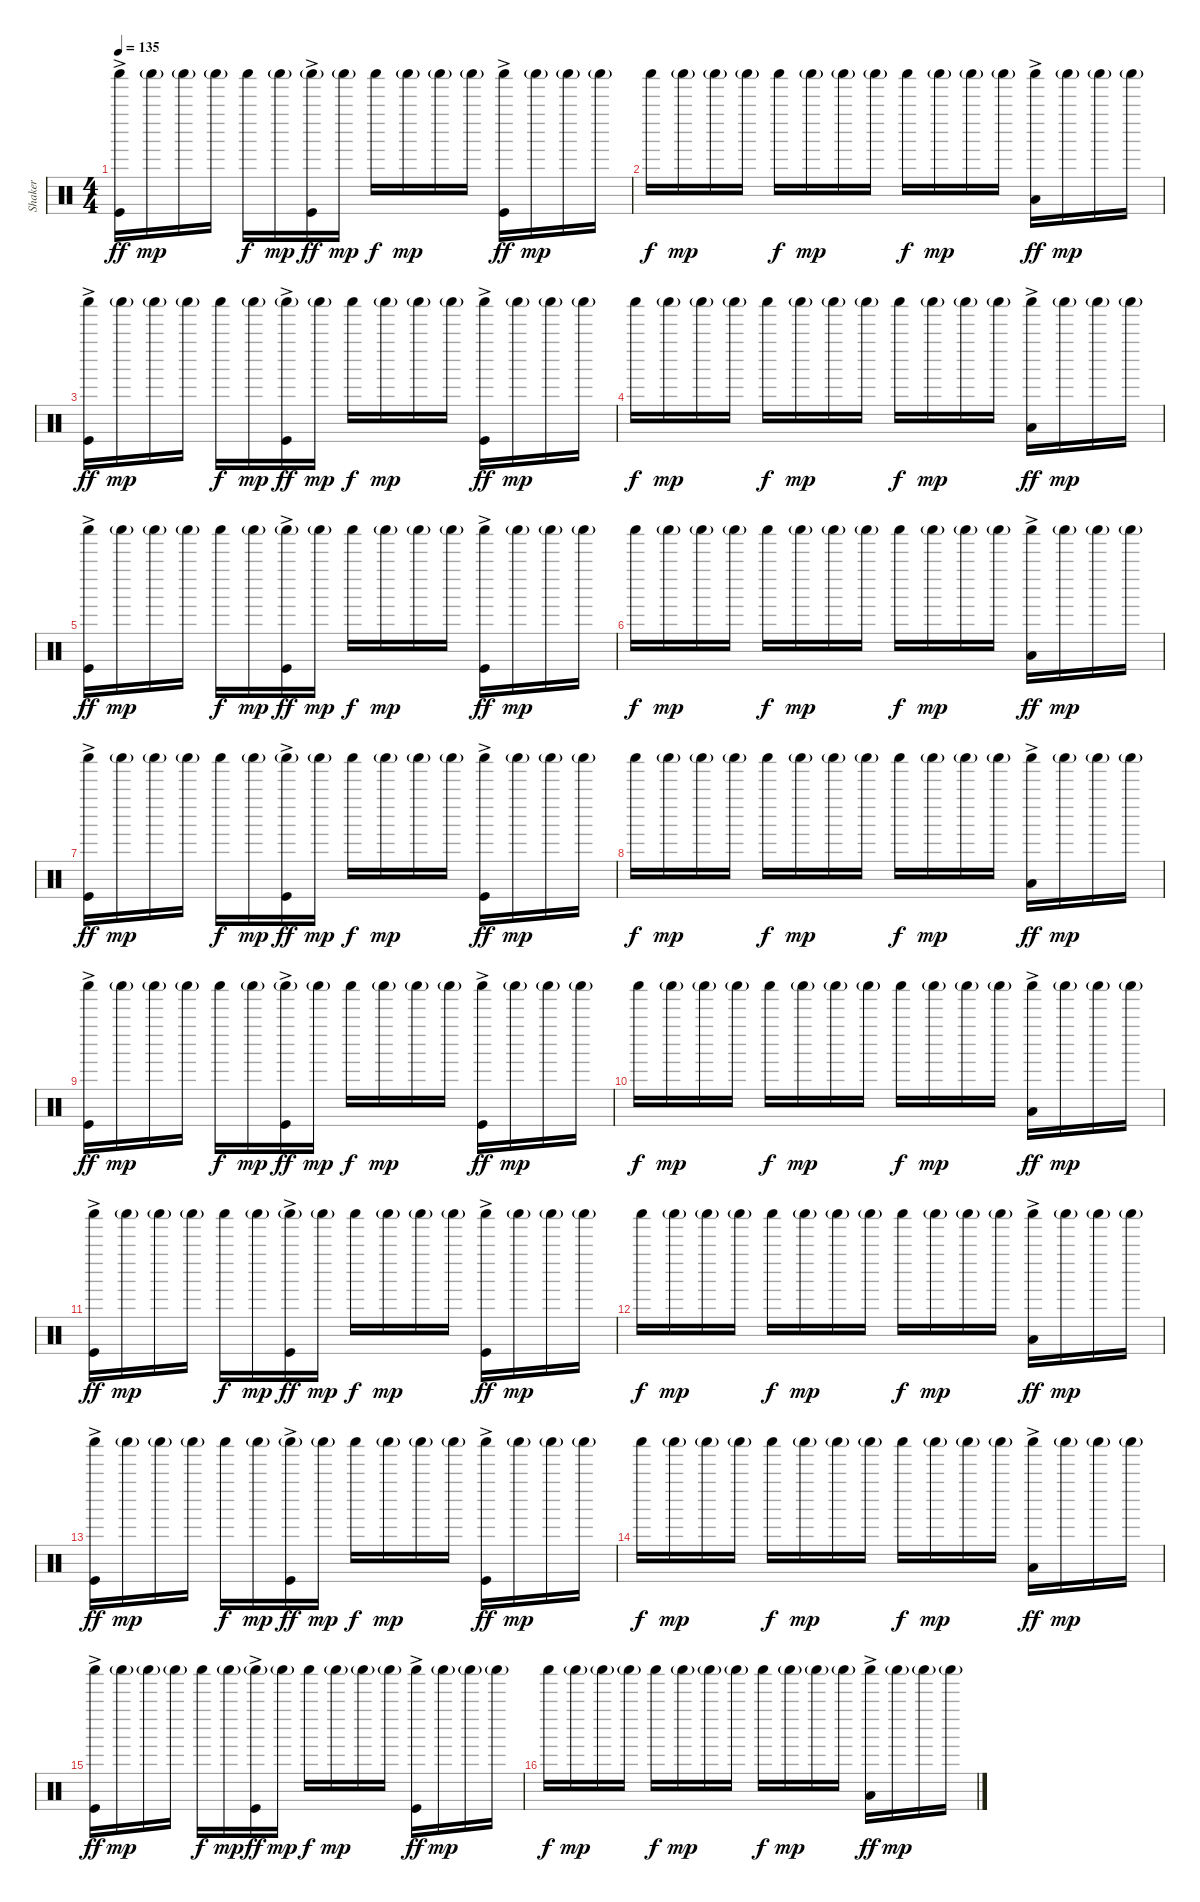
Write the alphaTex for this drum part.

\track ("Shaker" "Shaker") {instrument percussion}
\staff {score}
\articulation defaults
\ts (4 4)
\tempo 135
\clef neutral
\ks c
("Shaker (hit)" "Kick (hit)"{ac}).16{dy ff} "Shaker (hit)"{g}.16{dy mp} "Shaker (hit)"{g}.16 "Shaker (hit)"{g}.16 "Shaker (hit)".16{dy f} "Shaker (hit)"{g}.16{dy mp} ("Shaker (hit)"{g} "Kick (hit)"{ac}).16{dy ff} "Shaker (hit)"{g}.16{dy mp} "Shaker (hit)".16{dy f} "Shaker (hit)"{g}.16{dy mp} "Shaker (hit)"{g}.16 "Shaker (hit)"{g}.16 ("Shaker (hit)" "Kick (hit)"{ac}).16{dy ff} "Shaker (hit)"{g}.16{dy mp} "Shaker (hit)"{g}.16 "Shaker (hit)"{g}.16 |
"Shaker (hit)".16{dy f} "Shaker (hit)"{g}.16{dy mp} "Shaker (hit)"{g}.16 "Shaker (hit)"{g}.16 "Shaker (hit)".16{dy f} "Shaker (hit)"{g}.16{dy mp} "Shaker (hit)"{g}.16 "Shaker (hit)"{g}.16 "Shaker (hit)".16{dy f} "Shaker (hit)"{g}.16{dy mp} "Shaker (hit)"{g}.16 "Shaker (hit)"{g}.16 ("Shaker (hit)" "Low Floor Tom (hit)"{ac}).16{dy ff} "Shaker (hit)"{g}.16{dy mp} "Shaker (hit)"{g}.16 "Shaker (hit)"{g}.16 |
("Shaker (hit)" "Kick (hit)"{ac}).16{dy ff} "Shaker (hit)"{g}.16{dy mp} "Shaker (hit)"{g}.16 "Shaker (hit)"{g}.16 "Shaker (hit)".16{dy f} "Shaker (hit)"{g}.16{dy mp} ("Shaker (hit)"{g} "Kick (hit)"{ac}).16{dy ff} "Shaker (hit)"{g}.16{dy mp} "Shaker (hit)".16{dy f} "Shaker (hit)"{g}.16{dy mp} "Shaker (hit)"{g}.16 "Shaker (hit)"{g}.16 ("Shaker (hit)" "Kick (hit)"{ac}).16{dy ff} "Shaker (hit)"{g}.16{dy mp} "Shaker (hit)"{g}.16 "Shaker (hit)"{g}.16 |
"Shaker (hit)".16{dy f} "Shaker (hit)"{g}.16{dy mp} "Shaker (hit)"{g}.16 "Shaker (hit)"{g}.16 "Shaker (hit)".16{dy f} "Shaker (hit)"{g}.16{dy mp} "Shaker (hit)"{g}.16 "Shaker (hit)"{g}.16 "Shaker (hit)".16{dy f} "Shaker (hit)"{g}.16{dy mp} "Shaker (hit)"{g}.16 "Shaker (hit)"{g}.16 ("Shaker (hit)" "Low Floor Tom (hit)"{ac}).16{dy ff} "Shaker (hit)"{g}.16{dy mp} "Shaker (hit)"{g}.16 "Shaker (hit)"{g}.16 |
("Shaker (hit)" "Kick (hit)"{ac}).16{dy ff} "Shaker (hit)"{g}.16{dy mp} "Shaker (hit)"{g}.16 "Shaker (hit)"{g}.16 "Shaker (hit)".16{dy f} "Shaker (hit)"{g}.16{dy mp} ("Shaker (hit)"{g} "Kick (hit)"{ac}).16{dy ff} "Shaker (hit)"{g}.16{dy mp} "Shaker (hit)".16{dy f} "Shaker (hit)"{g}.16{dy mp} "Shaker (hit)"{g}.16 "Shaker (hit)"{g}.16 ("Shaker (hit)" "Kick (hit)"{ac}).16{dy ff} "Shaker (hit)"{g}.16{dy mp} "Shaker (hit)"{g}.16 "Shaker (hit)"{g}.16 |
"Shaker (hit)".16{dy f} "Shaker (hit)"{g}.16{dy mp} "Shaker (hit)"{g}.16 "Shaker (hit)"{g}.16 "Shaker (hit)".16{dy f} "Shaker (hit)"{g}.16{dy mp} "Shaker (hit)"{g}.16 "Shaker (hit)"{g}.16 "Shaker (hit)".16{dy f} "Shaker (hit)"{g}.16{dy mp} "Shaker (hit)"{g}.16 "Shaker (hit)"{g}.16 ("Shaker (hit)" "Low Floor Tom (hit)"{ac}).16{dy ff} "Shaker (hit)"{g}.16{dy mp} "Shaker (hit)"{g}.16 "Shaker (hit)"{g}.16 |
("Shaker (hit)" "Kick (hit)"{ac}).16{dy ff} "Shaker (hit)"{g}.16{dy mp} "Shaker (hit)"{g}.16 "Shaker (hit)"{g}.16 "Shaker (hit)".16{dy f} "Shaker (hit)"{g}.16{dy mp} ("Shaker (hit)"{g} "Kick (hit)"{ac}).16{dy ff} "Shaker (hit)"{g}.16{dy mp} "Shaker (hit)".16{dy f} "Shaker (hit)"{g}.16{dy mp} "Shaker (hit)"{g}.16 "Shaker (hit)"{g}.16 ("Shaker (hit)" "Kick (hit)"{ac}).16{dy ff} "Shaker (hit)"{g}.16{dy mp} "Shaker (hit)"{g}.16 "Shaker (hit)"{g}.16 |
"Shaker (hit)".16{dy f} "Shaker (hit)"{g}.16{dy mp} "Shaker (hit)"{g}.16 "Shaker (hit)"{g}.16 "Shaker (hit)".16{dy f} "Shaker (hit)"{g}.16{dy mp} "Shaker (hit)"{g}.16 "Shaker (hit)"{g}.16 "Shaker (hit)".16{dy f} "Shaker (hit)"{g}.16{dy mp} "Shaker (hit)"{g}.16 "Shaker (hit)"{g}.16 ("Shaker (hit)" "Low Floor Tom (hit)"{ac}).16{dy ff} "Shaker (hit)"{g}.16{dy mp} "Shaker (hit)"{g}.16 "Shaker (hit)"{g}.16 |
("Shaker (hit)" "Kick (hit)"{ac}).16{dy ff} "Shaker (hit)"{g}.16{dy mp} "Shaker (hit)"{g}.16 "Shaker (hit)"{g}.16 "Shaker (hit)".16{dy f} "Shaker (hit)"{g}.16{dy mp} ("Shaker (hit)"{g} "Kick (hit)"{ac}).16{dy ff} "Shaker (hit)"{g}.16{dy mp} "Shaker (hit)".16{dy f} "Shaker (hit)"{g}.16{dy mp} "Shaker (hit)"{g}.16 "Shaker (hit)"{g}.16 ("Shaker (hit)" "Kick (hit)"{ac}).16{dy ff} "Shaker (hit)"{g}.16{dy mp} "Shaker (hit)"{g}.16 "Shaker (hit)"{g}.16 |
"Shaker (hit)".16{dy f} "Shaker (hit)"{g}.16{dy mp} "Shaker (hit)"{g}.16 "Shaker (hit)"{g}.16 "Shaker (hit)".16{dy f} "Shaker (hit)"{g}.16{dy mp} "Shaker (hit)"{g}.16 "Shaker (hit)"{g}.16 "Shaker (hit)".16{dy f} "Shaker (hit)"{g}.16{dy mp} "Shaker (hit)"{g}.16 "Shaker (hit)"{g}.16 ("Shaker (hit)" "Low Floor Tom (hit)"{ac}).16{dy ff} "Shaker (hit)"{g}.16{dy mp} "Shaker (hit)"{g}.16 "Shaker (hit)"{g}.16 |
("Shaker (hit)" "Kick (hit)"{ac}).16{dy ff} "Shaker (hit)"{g}.16{dy mp} "Shaker (hit)"{g}.16 "Shaker (hit)"{g}.16 "Shaker (hit)".16{dy f} "Shaker (hit)"{g}.16{dy mp} ("Shaker (hit)"{g} "Kick (hit)"{ac}).16{dy ff} "Shaker (hit)"{g}.16{dy mp} "Shaker (hit)".16{dy f} "Shaker (hit)"{g}.16{dy mp} "Shaker (hit)"{g}.16 "Shaker (hit)"{g}.16 ("Shaker (hit)" "Kick (hit)"{ac}).16{dy ff} "Shaker (hit)"{g}.16{dy mp} "Shaker (hit)"{g}.16 "Shaker (hit)"{g}.16 |
"Shaker (hit)".16{dy f} "Shaker (hit)"{g}.16{dy mp} "Shaker (hit)"{g}.16 "Shaker (hit)"{g}.16 "Shaker (hit)".16{dy f} "Shaker (hit)"{g}.16{dy mp} "Shaker (hit)"{g}.16 "Shaker (hit)"{g}.16 "Shaker (hit)".16{dy f} "Shaker (hit)"{g}.16{dy mp} "Shaker (hit)"{g}.16 "Shaker (hit)"{g}.16 ("Shaker (hit)" "Low Floor Tom (hit)"{ac}).16{dy ff} "Shaker (hit)"{g}.16{dy mp} "Shaker (hit)"{g}.16 "Shaker (hit)"{g}.16 |
("Shaker (hit)" "Kick (hit)"{ac}).16{dy ff} "Shaker (hit)"{g}.16{dy mp} "Shaker (hit)"{g}.16 "Shaker (hit)"{g}.16 "Shaker (hit)".16{dy f} "Shaker (hit)"{g}.16{dy mp} ("Shaker (hit)"{g} "Kick (hit)"{ac}).16{dy ff} "Shaker (hit)"{g}.16{dy mp} "Shaker (hit)".16{dy f} "Shaker (hit)"{g}.16{dy mp} "Shaker (hit)"{g}.16 "Shaker (hit)"{g}.16 ("Shaker (hit)" "Kick (hit)"{ac}).16{dy ff} "Shaker (hit)"{g}.16{dy mp} "Shaker (hit)"{g}.16 "Shaker (hit)"{g}.16 |
"Shaker (hit)".16{dy f} "Shaker (hit)"{g}.16{dy mp} "Shaker (hit)"{g}.16 "Shaker (hit)"{g}.16 "Shaker (hit)".16{dy f} "Shaker (hit)"{g}.16{dy mp} "Shaker (hit)"{g}.16 "Shaker (hit)"{g}.16 "Shaker (hit)".16{dy f} "Shaker (hit)"{g}.16{dy mp} "Shaker (hit)"{g}.16 "Shaker (hit)"{g}.16 ("Shaker (hit)" "Low Floor Tom (hit)"{ac}).16{dy ff} "Shaker (hit)"{g}.16{dy mp} "Shaker (hit)"{g}.16 "Shaker (hit)"{g}.16 |
("Shaker (hit)" "Kick (hit)"{ac}).16{dy ff} "Shaker (hit)"{g}.16{dy mp} "Shaker (hit)"{g}.16 "Shaker (hit)"{g}.16 "Shaker (hit)".16{dy f} "Shaker (hit)"{g}.16{dy mp} ("Shaker (hit)"{g} "Kick (hit)"{ac}).16{dy ff} "Shaker (hit)"{g}.16{dy mp} "Shaker (hit)".16{dy f} "Shaker (hit)"{g}.16{dy mp} "Shaker (hit)"{g}.16 "Shaker (hit)"{g}.16 ("Shaker (hit)" "Kick (hit)"{ac}).16{dy ff} "Shaker (hit)"{g}.16{dy mp} "Shaker (hit)"{g}.16 "Shaker (hit)"{g}.16 |
"Shaker (hit)".16{dy f} "Shaker (hit)"{g}.16{dy mp} "Shaker (hit)"{g}.16 "Shaker (hit)"{g}.16 "Shaker (hit)".16{dy f} "Shaker (hit)"{g}.16{dy mp} "Shaker (hit)"{g}.16 "Shaker (hit)"{g}.16 "Shaker (hit)".16{dy f} "Shaker (hit)"{g}.16{dy mp} "Shaker (hit)"{g}.16 "Shaker (hit)"{g}.16 ("Shaker (hit)" "Low Floor Tom (hit)"{ac}).16{dy ff} "Shaker (hit)"{g}.16{dy mp} "Shaker (hit)"{g}.16 "Shaker (hit)"{g}.16
